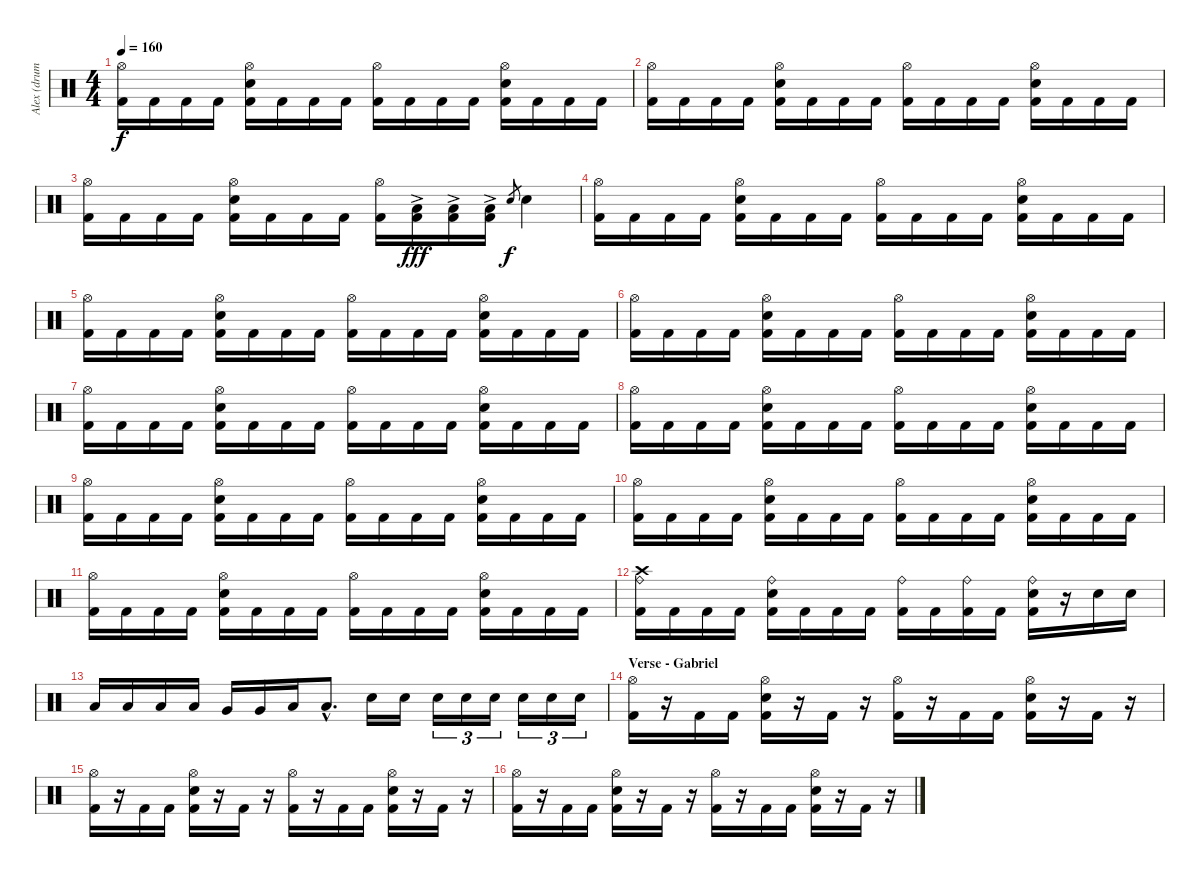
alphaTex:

\track ("Alex (drums)" "Alex (drum") {instrument percussion}
\staff {score}
\articulation defaults
\ts (4 4)
\tempo 160
\clef neutral
\ks c
("Hi-Hat (open)" "Kick (hit) 2").16{dy f} "Kick (hit) 2".16 "Kick (hit) 2".16 "Kick (hit) 2".16 ("Hi-Hat (open)" "Snare (hit) 2" "Kick (hit) 2").16 "Kick (hit) 2".16 "Kick (hit) 2".16 "Kick (hit) 2".16 ("Hi-Hat (open)" "Kick (hit) 2").16 "Kick (hit) 2".16 "Kick (hit) 2".16 "Kick (hit) 2".16 ("Hi-Hat (open)" "Snare (hit) 2" "Kick (hit) 2").16 "Kick (hit) 2".16 "Kick (hit) 2".16 "Kick (hit) 2".16 |
("Hi-Hat (open)" "Kick (hit) 2").16 "Kick (hit) 2".16 "Kick (hit) 2".16 "Kick (hit) 2".16 ("Hi-Hat (open)" "Snare (hit) 2" "Kick (hit) 2").16 "Kick (hit) 2".16 "Kick (hit) 2".16 "Kick (hit) 2".16 ("Hi-Hat (open)" "Kick (hit) 2").16 "Kick (hit) 2".16 "Kick (hit) 2".16 "Kick (hit) 2".16 ("Hi-Hat (open)" "Snare (hit) 2" "Kick (hit) 2").16 "Kick (hit) 2".16 "Kick (hit) 2".16 "Kick (hit) 2".16 |
("Hi-Hat (open)" "Kick (hit) 2").16 "Kick (hit) 2".16 "Kick (hit) 2".16 "Kick (hit) 2".16 ("Hi-Hat (open)" "Snare (hit) 2" "Kick (hit) 2").16 "Kick (hit) 2".16 "Kick (hit) 2".16 "Kick (hit) 2".16 ("Hi-Hat (open)" "Kick (hit) 2").16 ("Kick (hit) 2" "Low Tom (hit)"{ac}).16{dy fff} ("Kick (hit) 2" "Low Tom (hit)"{ac}).16 ("Kick (hit) 2" "Low Tom (hit)"{ac}).16 "Snare (hit) 2".8{gr dy f} "Snare (hit) 2".4 |
("Hi-Hat (open)" "Kick (hit) 2").16 "Kick (hit) 2".16 "Kick (hit) 2".16 "Kick (hit) 2".16 ("Hi-Hat (open)" "Snare (hit) 2" "Kick (hit) 2").16 "Kick (hit) 2".16 "Kick (hit) 2".16 "Kick (hit) 2".16 ("Hi-Hat (open)" "Kick (hit) 2").16 "Kick (hit) 2".16 "Kick (hit) 2".16 "Kick (hit) 2".16 ("Hi-Hat (open)" "Snare (hit) 2" "Kick (hit) 2").16 "Kick (hit) 2".16 "Kick (hit) 2".16 "Kick (hit) 2".16 |
("Hi-Hat (open)" "Kick (hit) 2").16 "Kick (hit) 2".16 "Kick (hit) 2".16 "Kick (hit) 2".16 ("Hi-Hat (open)" "Snare (hit) 2" "Kick (hit) 2").16 "Kick (hit) 2".16 "Kick (hit) 2".16 "Kick (hit) 2".16 ("Hi-Hat (open)" "Kick (hit) 2").16 "Kick (hit) 2".16 "Kick (hit) 2".16 "Kick (hit) 2".16 ("Hi-Hat (open)" "Snare (hit) 2" "Kick (hit) 2").16 "Kick (hit) 2".16 "Kick (hit) 2".16 "Kick (hit) 2".16 |
("Hi-Hat (open)" "Kick (hit) 2").16 "Kick (hit) 2".16 "Kick (hit) 2".16 "Kick (hit) 2".16 ("Hi-Hat (open)" "Snare (hit) 2" "Kick (hit) 2").16 "Kick (hit) 2".16 "Kick (hit) 2".16 "Kick (hit) 2".16 ("Hi-Hat (open)" "Kick (hit) 2").16 "Kick (hit) 2".16 "Kick (hit) 2".16 "Kick (hit) 2".16 ("Hi-Hat (open)" "Snare (hit) 2" "Kick (hit) 2").16 "Kick (hit) 2".16 "Kick (hit) 2".16 "Kick (hit) 2".16 |
("Hi-Hat (open)" "Kick (hit) 2").16 "Kick (hit) 2".16 "Kick (hit) 2".16 "Kick (hit) 2".16 ("Hi-Hat (open)" "Snare (hit) 2" "Kick (hit) 2").16 "Kick (hit) 2".16 "Kick (hit) 2".16 "Kick (hit) 2".16 ("Hi-Hat (open)" "Kick (hit) 2").16 "Kick (hit) 2".16 "Kick (hit) 2".16 "Kick (hit) 2".16 ("Hi-Hat (open)" "Snare (hit) 2" "Kick (hit) 2").16 "Kick (hit) 2".16 "Kick (hit) 2".16 "Kick (hit) 2".16 |
("Hi-Hat (open)" "Kick (hit) 2").16 "Kick (hit) 2".16 "Kick (hit) 2".16 "Kick (hit) 2".16 ("Hi-Hat (open)" "Snare (hit) 2" "Kick (hit) 2").16 "Kick (hit) 2".16 "Kick (hit) 2".16 "Kick (hit) 2".16 ("Hi-Hat (open)" "Kick (hit) 2").16 "Kick (hit) 2".16 "Kick (hit) 2".16 "Kick (hit) 2".16 ("Hi-Hat (open)" "Snare (hit) 2" "Kick (hit) 2").16 "Kick (hit) 2".16 "Kick (hit) 2".16 "Kick (hit) 2".16 |
("Hi-Hat (open)" "Kick (hit) 2").16 "Kick (hit) 2".16 "Kick (hit) 2".16 "Kick (hit) 2".16 ("Hi-Hat (open)" "Snare (hit) 2" "Kick (hit) 2").16 "Kick (hit) 2".16 "Kick (hit) 2".16 "Kick (hit) 2".16 ("Hi-Hat (open)" "Kick (hit) 2").16 "Kick (hit) 2".16 "Kick (hit) 2".16 "Kick (hit) 2".16 ("Hi-Hat (open)" "Snare (hit) 2" "Kick (hit) 2").16 "Kick (hit) 2".16 "Kick (hit) 2".16 "Kick (hit) 2".16 |
("Hi-Hat (open)" "Kick (hit) 2").16 "Kick (hit) 2".16 "Kick (hit) 2".16 "Kick (hit) 2".16 ("Hi-Hat (open)" "Snare (hit) 2" "Kick (hit) 2").16 "Kick (hit) 2".16 "Kick (hit) 2".16 "Kick (hit) 2".16 ("Hi-Hat (open)" "Kick (hit) 2").16 "Kick (hit) 2".16 "Kick (hit) 2".16 "Kick (hit) 2".16 ("Hi-Hat (open)" "Snare (hit) 2" "Kick (hit) 2").16 "Kick (hit) 2".16 "Kick (hit) 2".16 "Kick (hit) 2".16 |
("Hi-Hat (open)" "Kick (hit) 2").16 "Kick (hit) 2".16 "Kick (hit) 2".16 "Kick (hit) 2".16 ("Hi-Hat (open)" "Snare (hit) 2" "Kick (hit) 2").16 "Kick (hit) 2".16 "Kick (hit) 2".16 "Kick (hit) 2".16 ("Hi-Hat (open)" "Kick (hit) 2").16 "Kick (hit) 2".16 "Kick (hit) 2".16 "Kick (hit) 2".16 ("Hi-Hat (open)" "Snare (hit) 2" "Kick (hit) 2").16 "Kick (hit) 2".16 "Kick (hit) 2".16 "Kick (hit) 2".16 |
("Ride (bell)" "Kick (hit) 2" "Crash high (hit)").16 "Kick (hit) 2".16 "Kick (hit) 2".16 "Kick (hit) 2".16 ("Ride (bell)" "Snare (hit) 2" "Kick (hit) 2").16 "Kick (hit) 2".16 "Kick (hit) 2".16 "Kick (hit) 2".16 ("Ride (bell)" "Kick (hit) 2").16 "Kick (hit) 2".16 ("Ride (bell)" "Kick (hit) 2").16 "Kick (hit) 2".16 ("Ride (bell)" "Snare (hit) 2" "Kick (hit) 2").16 r.16 "Snare (hit) 2".16 "Snare (hit) 2".16 |
"Low Tom (hit)".16 "Low Tom (hit)".16 "Low Tom (hit)".16 "Low Tom (hit)".16 "Very Low Tom (hit)".16 "Very Low Tom (hit)".16 "Low Floor Tom (hit)".16 "Low Floor Tom (hit)"{hac}.8{d} "Snare (hit) 2".16 "Snare (hit) 2".16 "Snare (hit) 2".16{tu (3 2)} "Snare (hit) 2".16{tu (3 2)} "Snare (hit) 2".16{tu (3 2)} "Snare (hit) 2".16{tu (3 2)} "Snare (hit) 2".16{tu (3 2)} "Snare (hit) 2".16{tu (3 2)} |
\section ("" "Verse - Gabriel")
("Hi-Hat (open)" "Kick (hit) 2").16 r.16 "Kick (hit) 2".16 "Kick (hit) 2".16 ("Hi-Hat (open)" "Snare (hit) 2" "Kick (hit) 2").16 r.16 "Kick (hit) 2".16 r.16 ("Hi-Hat (open)" "Kick (hit) 2").16 r.16 "Kick (hit) 2".16 "Kick (hit) 2".16 ("Hi-Hat (open)" "Snare (hit) 2" "Kick (hit) 2").16 r.16 "Kick (hit) 2".16 r.16 |
("Hi-Hat (open)" "Kick (hit) 2").16 r.16 "Kick (hit) 2".16 "Kick (hit) 2".16 ("Hi-Hat (open)" "Snare (hit) 2" "Kick (hit) 2").16 r.16 "Kick (hit) 2".16 r.16 ("Hi-Hat (open)" "Kick (hit) 2").16 r.16 "Kick (hit) 2".16 "Kick (hit) 2".16 ("Hi-Hat (open)" "Snare (hit) 2" "Kick (hit) 2").16 r.16 "Kick (hit) 2".16 r.16 |
("Hi-Hat (open)" "Kick (hit) 2").16 r.16 "Kick (hit) 2".16 "Kick (hit) 2".16 ("Hi-Hat (open)" "Snare (hit) 2" "Kick (hit) 2").16 r.16 "Kick (hit) 2".16 r.16 ("Hi-Hat (open)" "Kick (hit) 2").16 r.16 "Kick (hit) 2".16 "Kick (hit) 2".16 ("Hi-Hat (open)" "Snare (hit) 2" "Kick (hit) 2").16 r.16 "Kick (hit) 2".16 r.16
